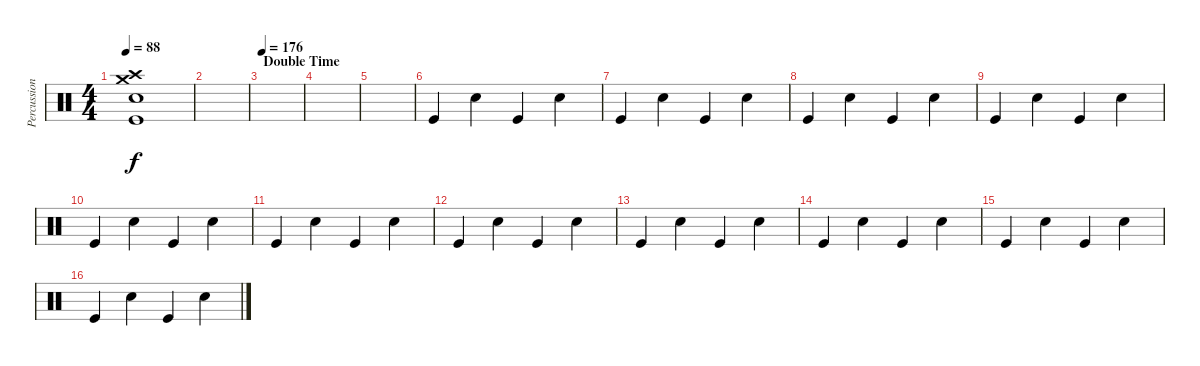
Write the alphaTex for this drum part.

\track ("Percussion" "Percussion") {instrument percussion}
\staff {score}
\articulation defaults
\ts (4 4)
\tempo 88
\clef neutral
\ks c
("Crash high (hit)" "Crash medium (hit)" "Electric Snare (hit)" "Kick (hit)").1{dy f} |
|
\section ("" "Double Time")
\tempo 176
|
|
|
"Kick (hit)".4 "Electric Snare (hit)".4 "Kick (hit)".4 "Electric Snare (hit)".4 |
"Kick (hit)".4 "Electric Snare (hit)".4 "Kick (hit)".4 "Electric Snare (hit)".4 |
"Kick (hit)".4 "Electric Snare (hit)".4 "Kick (hit)".4 "Electric Snare (hit)".4 |
"Kick (hit)".4 "Electric Snare (hit)".4 "Kick (hit)".4 "Electric Snare (hit)".4 |
"Kick (hit)".4 "Electric Snare (hit)".4 "Kick (hit)".4 "Electric Snare (hit)".4 |
"Kick (hit)".4 "Electric Snare (hit)".4 "Kick (hit)".4 "Electric Snare (hit)".4 |
"Kick (hit)".4 "Electric Snare (hit)".4 "Kick (hit)".4 "Electric Snare (hit)".4 |
"Kick (hit)".4 "Electric Snare (hit)".4 "Kick (hit)".4 "Electric Snare (hit)".4 |
"Kick (hit)".4 "Electric Snare (hit)".4 "Kick (hit)".4 "Electric Snare (hit)".4 |
"Kick (hit)".4 "Electric Snare (hit)".4 "Kick (hit)".4 "Electric Snare (hit)".4 |
"Kick (hit)".4 "Electric Snare (hit)".4 "Kick (hit)".4 "Electric Snare (hit)".4
